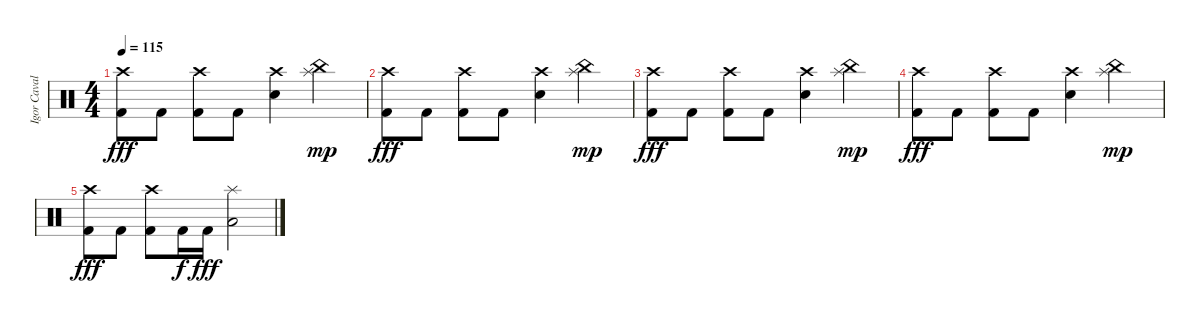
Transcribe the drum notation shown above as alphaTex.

\track ("Igor Cavalera" "Igor Caval") {instrument percussion}
\staff {score}
\articulation defaults
\ts (4 4)
\tempo 115
\clef neutral
\ks c
("Crash high (hit)" "Kick (hit) 2").8{dy fff} "Kick (hit) 2".8 ("Crash high (hit)" "Kick (hit) 2").8 "Kick (hit) 2".8 ("Crash high (hit)" "Electric Snare (hit)").4 ("Splash (hit)" "China (hit)").4{dy mp} |
("Crash high (hit)" "Kick (hit) 2").8{dy fff} "Kick (hit) 2".8 ("Crash high (hit)" "Kick (hit) 2").8 "Kick (hit) 2".8 ("Crash high (hit)" "Electric Snare (hit)").4 ("Splash (hit)" "China (hit)").4{dy mp} |
("Crash high (hit)" "Kick (hit) 2").8{dy fff} "Kick (hit) 2".8 ("Crash high (hit)" "Kick (hit) 2").8 "Kick (hit) 2".8 ("Crash high (hit)" "Electric Snare (hit)").4 ("Splash (hit)" "China (hit)").4{dy mp} |
("Crash high (hit)" "Kick (hit) 2").8{dy fff} "Kick (hit) 2".8 ("Crash high (hit)" "Kick (hit) 2").8 "Kick (hit) 2".8 ("Crash high (hit)" "Electric Snare (hit)").4 ("Splash (hit)" "China (hit)").4{dy mp} |
("Crash high (hit)" "Kick (hit) 2").8{dy fff} "Kick (hit) 2".8 ("Crash high (hit)" "Kick (hit) 2").8 "Kick (hit) 2".16{dy f} "Kick (hit) 2".16{dy fff} ("Splash (hit)" "Low Floor Tom (hit)").2
